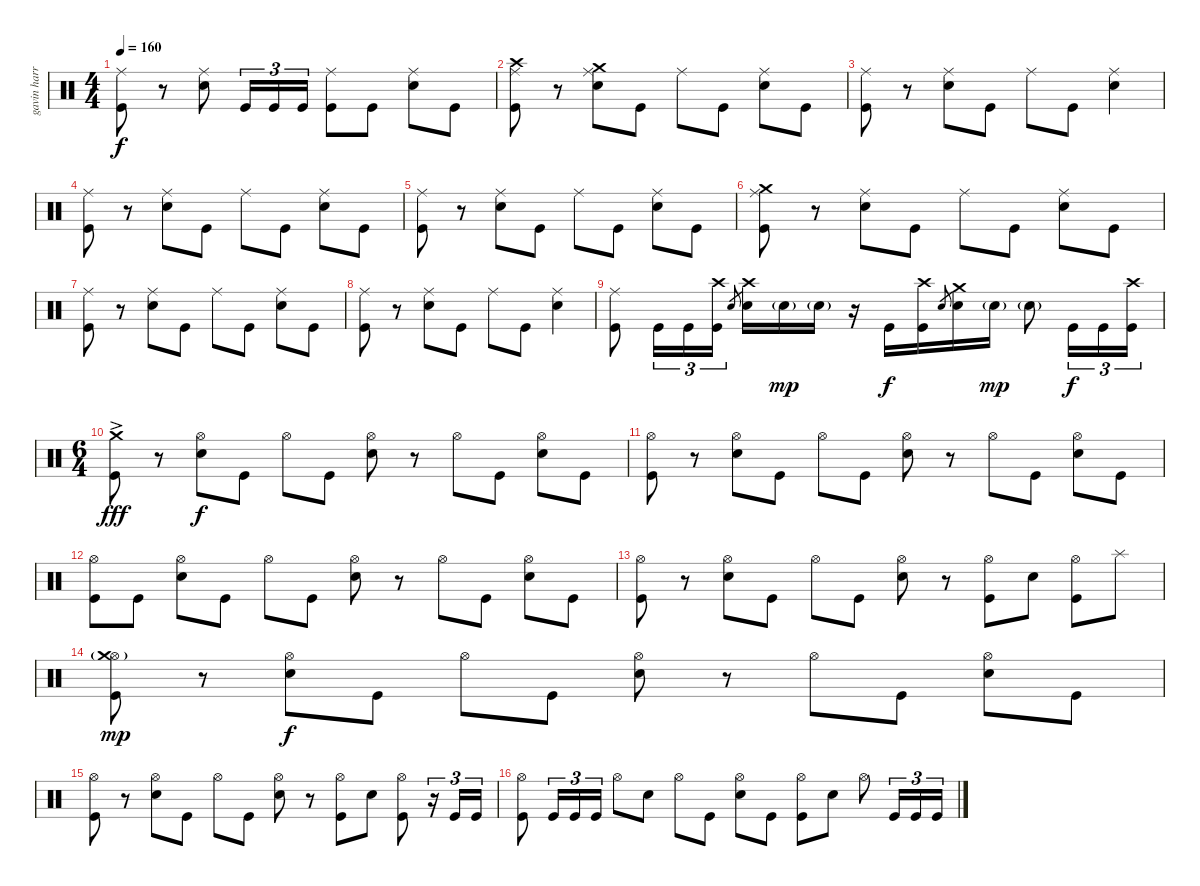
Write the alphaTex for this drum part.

\track ("gavin harrison ( drum ) " "gavin harr") {instrument percussion}
\staff {score}
\articulation defaults
\ts (4 4)
\tempo 160
\clef neutral
\ks c
("Ride (middle)" "Kick (hit)").8{dy f} r.8 ("Ride (middle)" "Snare (hit) 2").8 "Kick (hit)".16{tu (3 2)} "Kick (hit)".16{tu (3 2)} "Kick (hit)".16{tu (3 2)} ("Ride (middle)" "Kick (hit)").8 "Kick (hit)".8 ("Ride (middle)" "Snare (hit) 2").8 "Kick (hit)".8 |
("Ride (middle)" "Crash high (hit)" "Kick (hit)").8 r.8 ("Ride (middle)" "Crash medium (hit)" "Snare (hit) 2").8 "Kick (hit)".8 "Ride (middle)".8 "Kick (hit)".8 ("Ride (middle)" "Snare (hit) 2").8 "Kick (hit)".8 |
("Ride (middle)" "Kick (hit)").8 r.8 ("Ride (middle)" "Snare (hit) 2").8 "Kick (hit)".8 "Ride (middle)".8 "Kick (hit)".8 ("Ride (middle)" "Snare (hit) 2").4 |
("Ride (middle)" "Kick (hit)").8 r.8 ("Ride (middle)" "Snare (hit) 2").8 "Kick (hit)".8 "Ride (middle)".8 "Kick (hit)".8 ("Ride (middle)" "Snare (hit) 2").8 "Kick (hit)".8 |
("Ride (middle)" "Kick (hit)").8 r.8 ("Ride (middle)" "Snare (hit) 2").8 "Kick (hit)".8 "Ride (middle)".8 "Kick (hit)".8 ("Ride (middle)" "Snare (hit) 2").8 "Kick (hit)".8 |
("Ride (middle)" "Crash medium (hit)" "Kick (hit)").8 r.8 ("Ride (middle)" "Snare (hit) 2").8 "Kick (hit)".8 "Ride (middle)".8 "Kick (hit)".8 ("Ride (middle)" "Snare (hit) 2").8 "Kick (hit)".8 |
("Ride (middle)" "Kick (hit)").8 r.8 ("Ride (middle)" "Snare (hit) 2").8 "Kick (hit)".8 "Ride (middle)".8 "Kick (hit)".8 ("Ride (middle)" "Snare (hit) 2").8 "Kick (hit)".8 |
("Ride (middle)" "Kick (hit)").8 r.8 ("Ride (middle)" "Snare (hit) 2").8 "Kick (hit)".8 "Ride (middle)".8 "Kick (hit)".8 ("Ride (middle)" "Snare (hit) 2").4 |
("Ride (middle)" "Kick (hit)").8 "Kick (hit)".16{tu (3 2)} "Kick (hit)".16{tu (3 2)} ("Crash high (hit)" "Kick (hit)").16{tu (3 2)} "Snare (hit) 2".8{gr} ("Crash high (hit)" "Snare (hit) 2").16 "Snare (hit) 2"{g}.16{dy mp} "Snare (hit) 2"{g}.16 r.16 "Kick (hit)".16{dy f} ("Crash high (hit)" "Kick (hit)").16 "Snare (hit) 2".8{gr} ("Crash medium (hit)" "Snare (hit) 2").16 "Snare (hit) 2"{g}.16{dy mp} "Snare (hit) 2"{g}.8 "Kick (hit)".16{tu (3 2) dy f} "Kick (hit)".16{tu (3 2)} ("Crash high (hit)" "Kick (hit)").16{tu (3 2)} |
\ts (6 4)
("Crash medium (hit)"{ac} "Kick (hit)").8{dy fff} r.8 ("Hi-Hat (open)" "Snare (hit) 2").8{dy f} "Kick (hit)".8 "Hi-Hat (open)".8 "Kick (hit)".8 ("Hi-Hat (open)" "Snare (hit) 2").8 r.8 "Hi-Hat (open)".8 "Kick (hit)".8 ("Hi-Hat (open)" "Snare (hit) 2").8 "Kick (hit)".8 |
("Hi-Hat (open)" "Kick (hit)").8 r.8 ("Hi-Hat (open)" "Snare (hit) 2").8 "Kick (hit)".8 "Hi-Hat (open)".8 "Kick (hit)".8 ("Hi-Hat (open)" "Snare (hit) 2").8 r.8 "Hi-Hat (open)".8 "Kick (hit)".8 ("Hi-Hat (open)" "Snare (hit) 2").8 "Kick (hit)".8 |
("Hi-Hat (open)" "Kick (hit)").8 "Kick (hit)".8 ("Hi-Hat (open)" "Snare (hit) 2").8 "Kick (hit)".8 "Hi-Hat (open)".8 "Kick (hit)".8 ("Hi-Hat (open)" "Snare (hit) 2").8 r.8 "Hi-Hat (open)".8 "Kick (hit)".8 ("Hi-Hat (open)" "Snare (hit) 2").8 "Kick (hit)".8 |
("Hi-Hat (open)" "Kick (hit)").8 r.8 ("Hi-Hat (open)" "Snare (hit) 2").8 "Kick (hit)".8 "Hi-Hat (open)".8 "Kick (hit)".8 ("Hi-Hat (open)" "Snare (hit) 2").8 r.8 ("Hi-Hat (open)" "Kick (hit)").8 "Snare (hit) 2".8 ("Hi-Hat (open)" "Kick (hit)").8 "Splash (hit)".8 |
("Hi-Hat (open)" "Crash medium (hit)"{g} "Kick (hit)").8{dy mp} r.8 ("Hi-Hat (open)" "Snare (hit) 2").8{dy f} "Kick (hit)".8 "Hi-Hat (open)".8 "Kick (hit)".8 ("Hi-Hat (open)" "Snare (hit) 2").8 r.8 "Hi-Hat (open)".8 "Kick (hit)".8 ("Hi-Hat (open)" "Snare (hit) 2").8 "Kick (hit)".8 |
("Hi-Hat (open)" "Kick (hit)").8 r.8 ("Hi-Hat (open)" "Snare (hit) 2").8 "Kick (hit)".8 "Hi-Hat (open)".8 "Kick (hit)".8 ("Hi-Hat (open)" "Snare (hit) 2").8 r.8 ("Hi-Hat (open)" "Kick (hit)").8 "Snare (hit) 2".8 ("Hi-Hat (open)" "Kick (hit)").8 r.16{tu (3 2)} "Kick (hit)".16{tu (3 2)} "Kick (hit)".16{tu (3 2)} |
("Hi-Hat (open)" "Kick (hit)").8 "Kick (hit)".16{tu (3 2)} "Kick (hit)".16{tu (3 2)} "Kick (hit)".16{tu (3 2)} "Hi-Hat (open)".8 "Snare (hit) 2".8 "Hi-Hat (open)".8 "Kick (hit)".8 ("Hi-Hat (open)" "Snare (hit) 2").8 "Kick (hit)".8 ("Hi-Hat (open)" "Kick (hit)").8 "Snare (hit) 2".8 "Hi-Hat (open)".8 "Kick (hit)".16{tu (3 2)} "Kick (hit)".16{tu (3 2)} "Kick (hit)".16{tu (3 2)}
